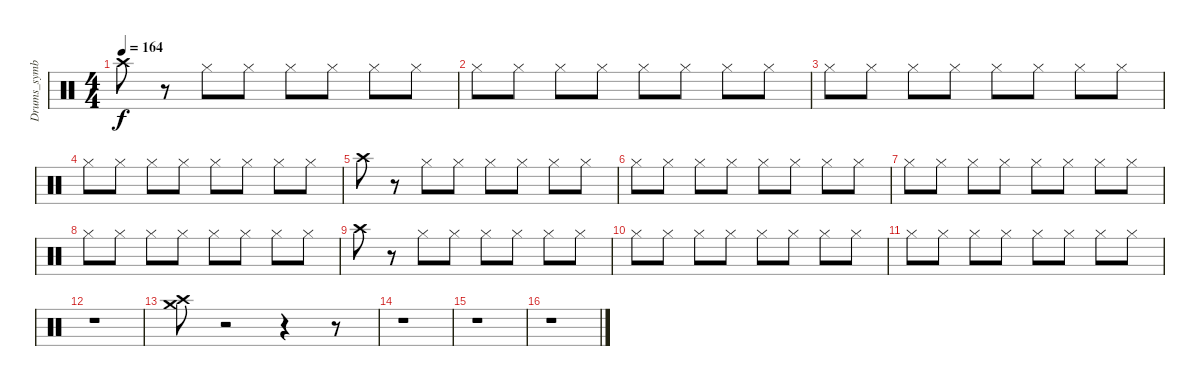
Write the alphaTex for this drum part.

\track ("Drums_symbal" "Drums_symb") {instrument percussion}
\staff {score}
\articulation defaults
\ts (4 4)
\tempo 164
\clef neutral
\ks c "Crash high (hit)".8{dy f}
r.8 "Hi-Hat (closed)".8 "Hi-Hat (closed)".8 "Hi-Hat (closed)".8 "Hi-Hat (closed)".8 "Hi-Hat (closed)".8 "Hi-Hat (closed)".8 |
"Hi-Hat (closed)".8 "Hi-Hat (closed)".8 "Hi-Hat (closed)".8 "Hi-Hat (closed)".8 "Hi-Hat (closed)".8 "Hi-Hat (closed)".8 "Hi-Hat (closed)".8 "Hi-Hat (closed)".8 |
"Hi-Hat (closed)".8 "Hi-Hat (closed)".8 "Hi-Hat (closed)".8 "Hi-Hat (closed)".8 "Hi-Hat (closed)".8 "Hi-Hat (closed)".8 "Hi-Hat (closed)".8 "Hi-Hat (closed)".8 |
"Hi-Hat (closed)".8 "Hi-Hat (closed)".8 "Hi-Hat (closed)".8 "Hi-Hat (closed)".8 "Hi-Hat (closed)".8 "Hi-Hat (closed)".8 "Hi-Hat (closed)".8 "Hi-Hat (closed)".8 |
"Crash high (hit)".8 r.8 "Hi-Hat (closed)".8 "Hi-Hat (closed)".8 "Hi-Hat (closed)".8 "Hi-Hat (closed)".8 "Hi-Hat (closed)".8 "Hi-Hat (closed)".8 |
"Hi-Hat (closed)".8 "Hi-Hat (closed)".8 "Hi-Hat (closed)".8 "Hi-Hat (closed)".8 "Hi-Hat (closed)".8 "Hi-Hat (closed)".8 "Hi-Hat (closed)".8 "Hi-Hat (closed)".8 |
"Hi-Hat (closed)".8 "Hi-Hat (closed)".8 "Hi-Hat (closed)".8 "Hi-Hat (closed)".8 "Hi-Hat (closed)".8 "Hi-Hat (closed)".8 "Hi-Hat (closed)".8 "Hi-Hat (closed)".8 |
"Hi-Hat (closed)".8 "Hi-Hat (closed)".8 "Hi-Hat (closed)".8 "Hi-Hat (closed)".8 "Hi-Hat (closed)".8 "Hi-Hat (closed)".8 "Hi-Hat (closed)".8 "Hi-Hat (closed)".8 |
"Crash high (hit)".8 r.8 "Hi-Hat (closed)".8 "Hi-Hat (closed)".8 "Hi-Hat (closed)".8 "Hi-Hat (closed)".8 "Hi-Hat (closed)".8 "Hi-Hat (closed)".8 |
"Hi-Hat (closed)".8 "Hi-Hat (closed)".8 "Hi-Hat (closed)".8 "Hi-Hat (closed)".8 "Hi-Hat (closed)".8 "Hi-Hat (closed)".8 "Hi-Hat (closed)".8 "Hi-Hat (closed)".8 |
"Hi-Hat (closed)".8 "Hi-Hat (closed)".8 "Hi-Hat (closed)".8 "Hi-Hat (closed)".8 "Hi-Hat (closed)".8 "Hi-Hat (closed)".8 "Hi-Hat (closed)".8 "Hi-Hat (closed)".8 |
r.1 |
("Crash medium (hit)" "Crash high (hit)").8 r.2 r.4 r.8 |
r.1 |
r.1 |
r.1
